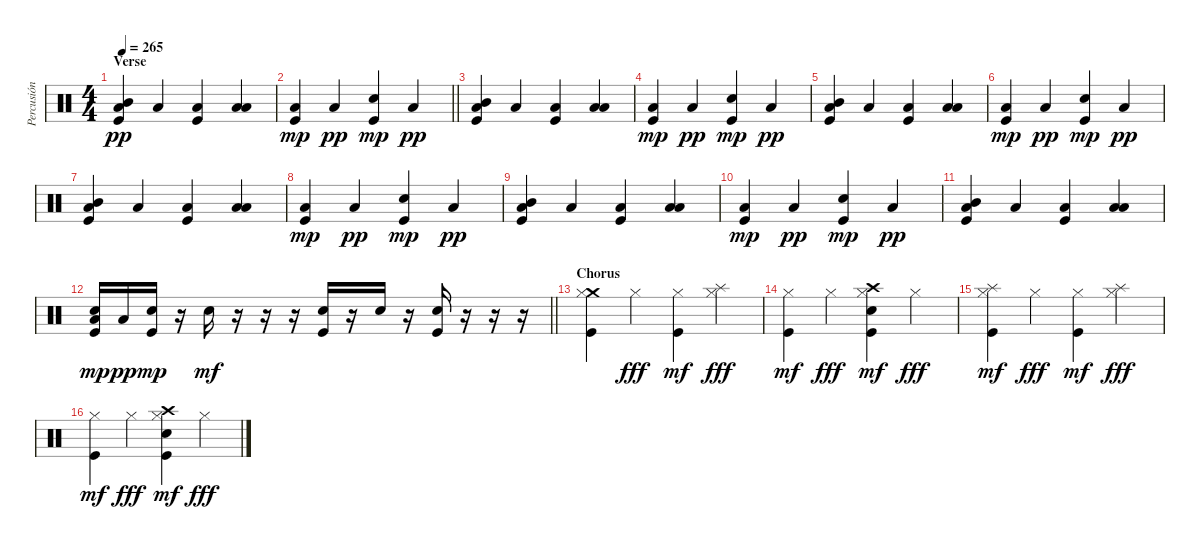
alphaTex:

\track ("Percusión" "Percusión") {instrument percussion}
\staff {score}
\articulation defaults
\ts (4 4)
\section ("" "Verse")
\tempo 265
\clef neutral
\ks c
("Mid Tom (hit)" "Low Floor Tom (hit)" "Kick (hit)").4{dy pp} "Low Floor Tom (hit)".4 ("Low Floor Tom (hit)" "Kick (hit)").4 ("Low Tom (hit)" "Low Floor Tom (hit)").4 |
\barLineRight lightlight
("Low Floor Tom (hit)" "Kick (hit)").4{dy mp} "Low Floor Tom (hit)".4{dy pp} ("Electric Snare (hit)" "Kick (hit)").4{dy mp} "Low Floor Tom (hit)".4{dy pp} |
("Mid Tom (hit)" "Low Floor Tom (hit)" "Kick (hit)").4 "Low Floor Tom (hit)".4 ("Low Floor Tom (hit)" "Kick (hit)").4 ("Low Tom (hit)" "Low Floor Tom (hit)").4 |
("Low Floor Tom (hit)" "Kick (hit)").4{dy mp} "Low Floor Tom (hit)".4{dy pp} ("Electric Snare (hit)" "Kick (hit)").4{dy mp} "Low Floor Tom (hit)".4{dy pp} |
("Mid Tom (hit)" "Low Floor Tom (hit)" "Kick (hit)").4 "Low Floor Tom (hit)".4 ("Low Floor Tom (hit)" "Kick (hit)").4 ("Low Tom (hit)" "Low Floor Tom (hit)").4 |
("Low Floor Tom (hit)" "Kick (hit)").4{dy mp} "Low Floor Tom (hit)".4{dy pp} ("Electric Snare (hit)" "Kick (hit)").4{dy mp} "Low Floor Tom (hit)".4{dy pp} |
("Mid Tom (hit)" "Low Floor Tom (hit)" "Kick (hit)").4 "Low Floor Tom (hit)".4 ("Low Floor Tom (hit)" "Kick (hit)").4 ("Low Tom (hit)" "Low Floor Tom (hit)").4 |
("Low Floor Tom (hit)" "Kick (hit)").4{dy mp} "Low Floor Tom (hit)".4{dy pp} ("Electric Snare (hit)" "Kick (hit)").4{dy mp} "Low Floor Tom (hit)".4{dy pp} |
("Mid Tom (hit)" "Low Floor Tom (hit)" "Kick (hit)").4 "Low Floor Tom (hit)".4 ("Low Floor Tom (hit)" "Kick (hit)").4 ("Low Tom (hit)" "Low Floor Tom (hit)").4 |
("Low Floor Tom (hit)" "Kick (hit)").4{dy mp} "Low Floor Tom (hit)".4{dy pp} ("Electric Snare (hit)" "Kick (hit)").4{dy mp} "Low Floor Tom (hit)".4{dy pp} |
("Mid Tom (hit)" "Low Floor Tom (hit)" "Kick (hit)").4 "Low Floor Tom (hit)".4 ("Low Floor Tom (hit)" "Kick (hit)").4 ("Low Tom (hit)" "Low Floor Tom (hit)").4 |
\barLineRight lightlight
("Low Floor Tom (hit)" "Electric Snare (hit)" "Kick (hit)").16{dy mp} "Low Floor Tom (hit)".16{dy pp} ("Electric Snare (hit)" "Kick (hit)").16{dy mp} r.16 "Electric Snare (hit)".16{dy mf} r.16 r.16 r.16 ("Electric Snare (hit)" "Kick (hit)").16 r.16 "Electric Snare (hit)".16 r.16 ("Electric Snare (hit)" "Kick (hit)").16 r.16 r.16 r.16 |
\section ("" "Chorus")
("Crash medium (hit)" "Hi-Hat (closed)" "Kick (hit)").4 "Hi-Hat (closed)".4{dy fff} ("Hi-Hat (closed)" "Kick (hit)").4{dy mf} ("Splash (hit)" "Hi-Hat (closed)").4{dy fff} |
("Hi-Hat (closed)" "Kick (hit)").4{dy mf} "Hi-Hat (closed)".4{dy fff} ("Crash high (hit)" "Electric Snare (hit)" "Hi-Hat (closed)" "Kick (hit)").4{dy mf} "Hi-Hat (closed)".4{dy fff} |
("Splash (hit)" "Hi-Hat (closed)" "Kick (hit)").4{dy mf} "Hi-Hat (closed)".4{dy fff} ("Hi-Hat (closed)" "Kick (hit)").4{dy mf} ("Splash (hit)" "Hi-Hat (closed)").4{dy fff} |
("Hi-Hat (closed)" "Kick (hit)").4{dy mf} "Hi-Hat (closed)".4{dy fff} ("Crash high (hit)" "Electric Snare (hit)" "Hi-Hat (closed)" "Kick (hit)").4{dy mf} "Hi-Hat (closed)".4{dy fff}
